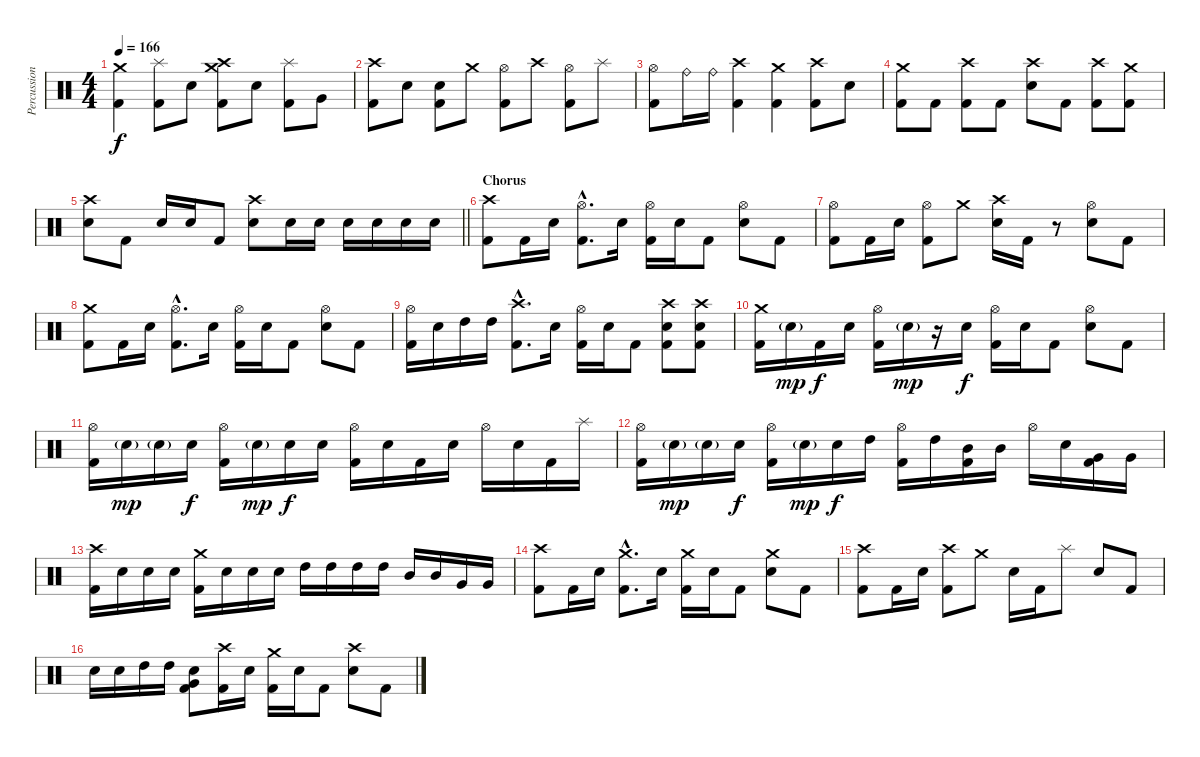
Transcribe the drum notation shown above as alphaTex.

\track ("Percussion" "Percussion") {instrument percussion}
\staff {score}
\articulation defaults
\ts (4 4)
\tempo 166
\clef neutral
\ks c
("Crash medium (hit)" "Kick (hit) 2").4{dy f} ("Splash (hit)" "Kick (hit) 2").8 "Electric Snare (hit)".8 ("Crash high (hit)" "Crash medium (hit)" "Kick (hit) 2").8 "Electric Snare (hit)".8 ("Splash (hit)" "Kick (hit) 2").8 "Very Low Tom (hit)".8 |
("Crash high (hit)" "Kick (hit) 2").8 "Electric Snare (hit)".8 ("Electric Snare (hit)" "Kick (hit) 2").8 "Crash medium (hit)".8 ("Hi-Hat (open)" "Kick (hit) 2").8 "Crash high (hit)".8 ("Hi-Hat (open)" "Kick (hit) 2").8 "Splash (hit)".8 |
("Hi-Hat (open)" "Kick (hit) 2").8 "Ride (bell)".16 "Ride (bell)".16 ("Crash high (hit)" "Kick (hit) 2").4 ("Crash medium (hit)" "Kick (hit) 2").4 ("Crash high (hit)" "Kick (hit) 2").8 "Electric Snare (hit)".8 |
("Crash medium (hit)" "Kick (hit) 2").8 "Kick (hit) 2".8 ("Crash high (hit)" "Kick (hit) 2").8 "Kick (hit) 2".8 ("Crash high (hit)" "Electric Snare (hit)").8 "Kick (hit) 2".8 ("Crash high (hit)" "Kick (hit) 2").8 ("Crash medium (hit)" "Kick (hit) 2").8 |
\barLineRight lightlight
("Crash high (hit)" "Electric Snare (hit)").8 "Kick (hit) 2".8 "Electric Snare (hit)".16 "Electric Snare (hit)".16 "Kick (hit) 2".8 ("Crash high (hit)" "Electric Snare (hit)").8 "Electric Snare (hit)".16 "Electric Snare (hit)".16 "Electric Snare (hit)".16 "Electric Snare (hit)".16 "Electric Snare (hit)".16 "Electric Snare (hit)".16 |
\section ("" "Chorus")
("Crash high (hit)" "Kick (hit) 2").8 "Kick (hit) 2".16 "Electric Snare (hit)".16 ("Hi-Hat (open)"{hac} "Kick (hit) 2"{hac}).8{d} "Electric Snare (hit)".16 ("Hi-Hat (open)" "Kick (hit) 2").16 "Electric Snare (hit)".16 "Kick (hit) 2".8 ("Hi-Hat (open)" "Electric Snare (hit)").8 "Kick (hit) 2".8 |
("Hi-Hat (open)" "Kick (hit) 2").8 "Kick (hit) 2".16 "Electric Snare (hit)".16 ("Hi-Hat (open)" "Kick (hit) 2").8 "Crash medium (hit)".8 ("Crash high (hit)" "Electric Snare (hit)").16 "Kick (hit) 2".16 r.8 ("Hi-Hat (open)" "Electric Snare (hit)").8 "Kick (hit) 2".8 |
("Crash medium (hit)" "Kick (hit) 2").8 "Kick (hit) 2".16 "Electric Snare (hit)".16 ("Hi-Hat (open)"{hac} "Kick (hit) 2"{hac}).8{d} "Electric Snare (hit)".16 ("Hi-Hat (open)" "Kick (hit) 2").16 "Electric Snare (hit)".16 "Kick (hit) 2".8 ("Hi-Hat (open)" "Electric Snare (hit)").8 "Kick (hit) 2".8 |
("Hi-Hat (open)" "Kick (hit) 2").16 "Electric Snare (hit)".16 "High Tom (hit)".16 "High Tom (hit)".16 ("Crash high (hit)"{hac} "Kick (hit) 2"{hac}).8{d} "Electric Snare (hit)".16 ("Hi-Hat (open)" "Kick (hit) 2").16 "Electric Snare (hit)".16 "Kick (hit) 2".8 ("Crash high (hit)" "Electric Snare (hit)" "Kick (hit) 2").8 ("Crash high (hit)" "Electric Snare (hit)" "Kick (hit) 2").8 |
("Crash medium (hit)" "Kick (hit) 2").16 "Electric Snare (hit)"{g}.16{dy mp} "Kick (hit) 2".16{dy f} "Electric Snare (hit)".16 ("Hi-Hat (open)" "Kick (hit) 2").16 "Electric Snare (hit)"{g}.16{dy mp} r.16 "Electric Snare (hit)".16{dy f} ("Hi-Hat (open)" "Kick (hit) 2").16 "Electric Snare (hit)".16 "Kick (hit) 2".8 ("Hi-Hat (open)" "Electric Snare (hit)").8 "Kick (hit) 2".8 |
("Hi-Hat (open)" "Kick (hit) 2").16 "Electric Snare (hit)"{g}.16{dy mp} "Electric Snare (hit)"{g}.16 "Electric Snare (hit)".16{dy f} ("Hi-Hat (open)" "Kick (hit) 2").16 "Electric Snare (hit)"{g}.16{dy mp} "Electric Snare (hit)".16{dy f} "Electric Snare (hit)".16 ("Hi-Hat (open)" "Kick (hit) 2").16 "Electric Snare (hit)".16 "Kick (hit) 2".16 "Electric Snare (hit)".16 "Hi-Hat (open)".16 "Electric Snare (hit)".16 "Kick (hit) 2".16 "Splash (hit)".16 |
("Hi-Hat (open)" "Kick (hit) 2").16 "Electric Snare (hit)"{g}.16{dy mp} "Electric Snare (hit)"{g}.16 "Electric Snare (hit)".16{dy f} ("Hi-Hat (open)" "Kick (hit) 2").16 "Electric Snare (hit)"{g}.16{dy mp} "Electric Snare (hit)".16{dy f} "High Tom (hit)".16 ("Hi-Hat (open)" "Kick (hit) 2").16 "High Tom (hit)".16 ("Mid Tom (hit)" "Kick (hit) 2").16 "Mid Tom (hit)".16 "Hi-Hat (open)".16 "Electric Snare (hit)".16 ("Very Low Tom (hit)" "Kick (hit) 2").16 "Very Low Tom (hit)".16 |
("Crash high (hit)" "Kick (hit) 2").16 "Electric Snare (hit)".16 "Electric Snare (hit)".16 "Electric Snare (hit)".16 ("Crash medium (hit)" "Kick (hit) 2").16 "Electric Snare (hit)".16 "Electric Snare (hit)".16 "Electric Snare (hit)".16 "High Tom (hit)".16 "High Tom (hit)".16 "High Tom (hit)".16 "High Tom (hit)".16 "Mid Tom (hit)".16 "Mid Tom (hit)".16 "Very Low Tom (hit)".16 "Very Low Tom (hit)".16 |
("Crash high (hit)" "Kick (hit) 2").8 "Kick (hit) 2".16 "Electric Snare (hit)".16 ("Crash medium (hit)"{hac} "Kick (hit) 2"{hac}).8{d} "Electric Snare (hit)".16 ("Crash medium (hit)" "Kick (hit) 2").16 "Electric Snare (hit)".16 "Kick (hit) 2".8 ("Crash medium (hit)" "Electric Snare (hit)").8 "Kick (hit) 2".8 |
("Crash high (hit)" "Kick (hit) 2").8 "Kick (hit) 2".16 "Electric Snare (hit)".16 ("Crash high (hit)" "Kick (hit) 2").8 "Crash medium (hit)".8 "Electric Snare (hit)".16 "Kick (hit) 2".16 "Splash (hit)".8 "Electric Snare (hit)".8 "Kick (hit) 2".8 |
"Electric Snare (hit)".16 "Electric Snare (hit)".16 "High Tom (hit)".16 "High Tom (hit)".16 ("Very Low Tom (hit)" "Electric Snare (hit)" "Kick (hit) 2").8 ("Crash high (hit)" "Kick (hit) 2").16 "Electric Snare (hit)".16 ("Crash medium (hit)" "Kick (hit) 2").16 "Electric Snare (hit)".16 "Kick (hit) 2".8 ("Crash high (hit)" "Electric Snare (hit)").8 "Kick (hit) 2".8
